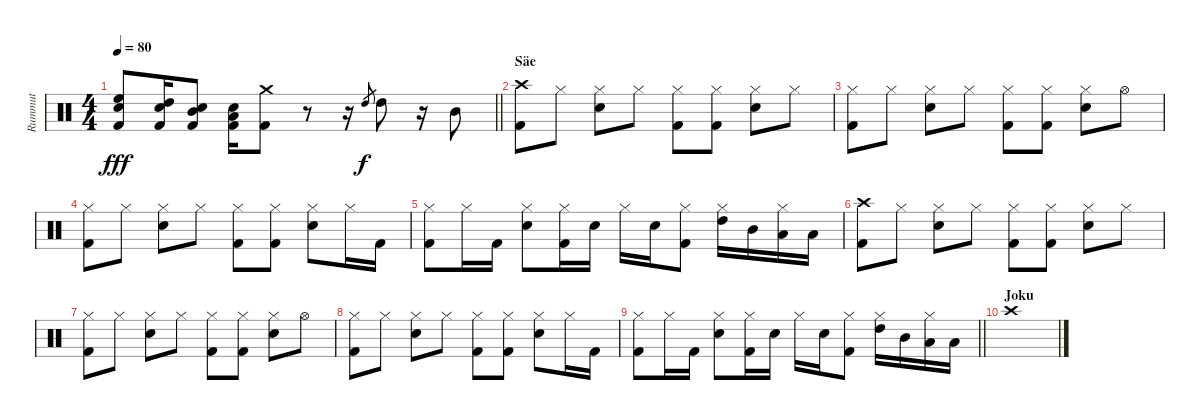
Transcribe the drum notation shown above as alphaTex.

\track ("Rummut" "Rummut") {instrument percussion}
\staff {score}
\articulation defaults
\ts (4 4)
\tempo 80
\clef neutral
\barLineRight lightlight
\ks c
("Electric Snare (hit)" "High Floor Tom (hit)" "Kick (hit) 2").8{dy fff} ("Electric Snare (hit)" "High Tom (hit)" "Kick (hit) 2").16 ("Electric Snare (hit)" "Mid Tom (hit)" "Kick (hit) 2").8 ("Electric Snare (hit)" "Low Tom (hit)" "Kick (hit) 2").16 ("Crash medium (hit)" "Kick (hit) 2").8 r.8 r.16 "High Tom (hit)".8{gr dy f} "High Tom (hit)".8 r.16 "Mid Tom (hit)".8 |
\section ("" "Säe")
("Crash high (hit)" "Kick (hit) 2").8 "Hi-Hat (closed)".8 ("Hi-Hat (closed)" "Snare (hit) 2").8 "Hi-Hat (closed)".8 ("Hi-Hat (closed)" "Kick (hit) 2").8 ("Hi-Hat (closed)" "Kick (hit) 2").8 ("Hi-Hat (closed)" "Snare (hit) 2").8 "Hi-Hat (closed)".8 |
("Hi-Hat (closed)" "Kick (hit) 2").8 "Hi-Hat (closed)".8 ("Hi-Hat (closed)" "Snare (hit) 2").8 "Hi-Hat (closed)".8 ("Hi-Hat (closed)" "Kick (hit) 2").8 ("Hi-Hat (closed)" "Kick (hit) 2").8 ("Hi-Hat (closed)" "Snare (hit) 2").8 "Hi-Hat (open)".8 |
("Hi-Hat (closed)" "Kick (hit) 2").8 "Hi-Hat (closed)".8 ("Hi-Hat (closed)" "Snare (hit) 2").8 "Hi-Hat (closed)".8 ("Hi-Hat (closed)" "Kick (hit) 2").8 ("Hi-Hat (closed)" "Kick (hit) 2").8 ("Hi-Hat (closed)" "Snare (hit) 2").8 "Hi-Hat (closed)".16 "Kick (hit) 2".16 |
("Hi-Hat (closed)" "Kick (hit) 2").8 "Hi-Hat (closed)".16 "Kick (hit) 2".16 ("Hi-Hat (closed)" "Snare (hit) 2").8 ("Hi-Hat (closed)" "Kick (hit) 2").16 "Snare (hit) 2".16 "Hi-Hat (closed)".16 "Snare (hit) 2".16 ("Hi-Hat (closed)" "Kick (hit) 2").8 ("Hi-Hat (closed)" "High Tom (hit)").16 "Mid Tom (hit)".16 ("Hi-Hat (closed)" "Low Floor Tom (hit)").16 "Low Floor Tom (hit)".16 |
("Crash high (hit)" "Kick (hit) 2").8 "Hi-Hat (closed)".8 ("Hi-Hat (closed)" "Snare (hit) 2").8 "Hi-Hat (closed)".8 ("Hi-Hat (closed)" "Kick (hit) 2").8 ("Hi-Hat (closed)" "Kick (hit) 2").8 ("Hi-Hat (closed)" "Snare (hit) 2").8 "Hi-Hat (closed)".8 |
("Hi-Hat (closed)" "Kick (hit) 2").8 "Hi-Hat (closed)".8 ("Hi-Hat (closed)" "Snare (hit) 2").8 "Hi-Hat (closed)".8 ("Hi-Hat (closed)" "Kick (hit) 2").8 ("Hi-Hat (closed)" "Kick (hit) 2").8 ("Hi-Hat (closed)" "Snare (hit) 2").8 "Hi-Hat (open)".8 |
("Hi-Hat (closed)" "Kick (hit) 2").8 "Hi-Hat (closed)".8 ("Hi-Hat (closed)" "Snare (hit) 2").8 "Hi-Hat (closed)".8 ("Hi-Hat (closed)" "Kick (hit) 2").8 ("Hi-Hat (closed)" "Kick (hit) 2").8 ("Hi-Hat (closed)" "Snare (hit) 2").8 "Hi-Hat (closed)".16 "Kick (hit) 2".16 |
\barLineRight lightlight
("Hi-Hat (closed)" "Kick (hit) 2").8 "Hi-Hat (closed)".16 "Kick (hit) 2".16 ("Hi-Hat (closed)" "Snare (hit) 2").8 ("Hi-Hat (closed)" "Kick (hit) 2").16 "Snare (hit) 2".16 "Hi-Hat (closed)".16 "Snare (hit) 2".16 ("Hi-Hat (closed)" "Kick (hit) 2").8 ("Hi-Hat (closed)" "High Tom (hit)").16 "Mid Tom (hit)".16 ("Hi-Hat (closed)" "Low Floor Tom (hit)").16 "Low Floor Tom (hit)".16 |
\section ("" "Joku")
"Crash high (hit)".1
